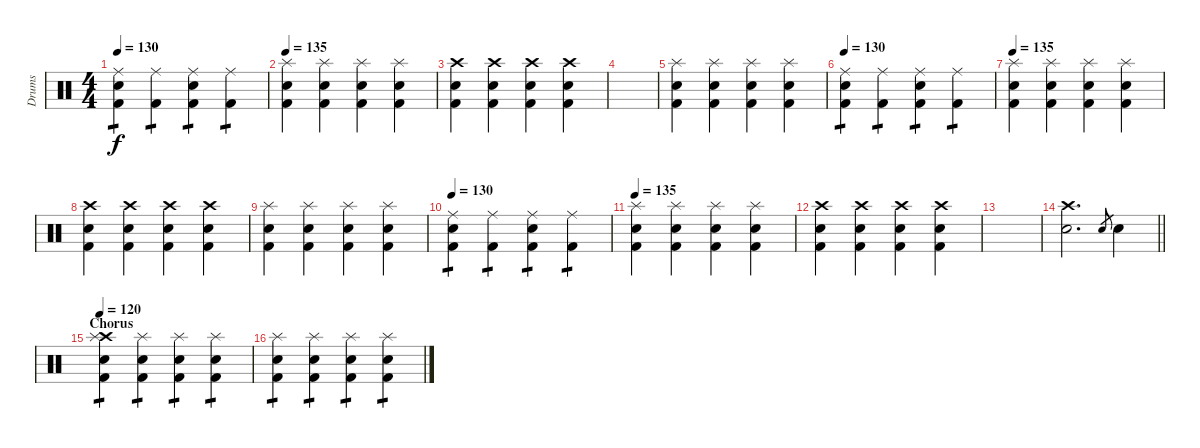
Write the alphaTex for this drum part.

\track ("Drums" "Drums") {instrument percussion}
\staff {score}
\articulation defaults
\ts (4 4)
\tempo 130
\clef neutral
\ks c
("Kick (hit) 2" "Electric Snare (hit)" "Ride (middle)").4{tp 1 dy f} ("Kick (hit) 2" "Ride (middle)").4{tp 1} ("Kick (hit) 2" "Electric Snare (hit)" "Ride (middle)").4{tp 1} ("Kick (hit) 2" "Ride (middle)").4{tp 1} |
\tempo 135
("Kick (hit) 2" "Electric Snare (hit)" "Splash (hit)").4 ("Kick (hit) 2" "Electric Snare (hit)" "Splash (hit)").4 ("Kick (hit) 2" "Electric Snare (hit)" "Splash (hit)").4 ("Kick (hit) 2" "Electric Snare (hit)" "Splash (hit)").4 |
("Kick (hit) 2" "Electric Snare (hit)" "Crash high (hit)").4 ("Kick (hit) 2" "Electric Snare (hit)" "Crash high (hit)").4 ("Kick (hit) 2" "Electric Snare (hit)" "Crash high (hit)").4 ("Kick (hit) 2" "Electric Snare (hit)" "Crash high (hit)").4 |
|
("Kick (hit) 2" "Electric Snare (hit)" "Splash (hit)").4 ("Kick (hit) 2" "Electric Snare (hit)" "Splash (hit)").4 ("Kick (hit) 2" "Electric Snare (hit)" "Splash (hit)").4 ("Kick (hit) 2" "Electric Snare (hit)" "Splash (hit)").4 |
\tempo 130
("Kick (hit) 2" "Electric Snare (hit)" "Ride (middle)").4{tp 1} ("Kick (hit) 2" "Ride (middle)").4{tp 1} ("Kick (hit) 2" "Electric Snare (hit)" "Ride (middle)").4{tp 1} ("Kick (hit) 2" "Ride (middle)").4{tp 1} |
\tempo 135
("Kick (hit) 2" "Electric Snare (hit)" "Splash (hit)").4 ("Kick (hit) 2" "Electric Snare (hit)" "Splash (hit)").4 ("Kick (hit) 2" "Electric Snare (hit)" "Splash (hit)").4 ("Kick (hit) 2" "Electric Snare (hit)" "Splash (hit)").4 |
("Kick (hit) 2" "Electric Snare (hit)" "Crash high (hit)").4 ("Kick (hit) 2" "Electric Snare (hit)" "Crash high (hit)").4 ("Kick (hit) 2" "Electric Snare (hit)" "Crash high (hit)").4 ("Kick (hit) 2" "Electric Snare (hit)" "Crash high (hit)").4 |
("Kick (hit) 2" "Electric Snare (hit)" "Splash (hit)").4 ("Kick (hit) 2" "Electric Snare (hit)" "Splash (hit)").4 ("Kick (hit) 2" "Electric Snare (hit)" "Splash (hit)").4 ("Kick (hit) 2" "Electric Snare (hit)" "Splash (hit)").4 |
\tempo 130
("Kick (hit) 2" "Electric Snare (hit)" "Ride (middle)").4{tp 1} ("Kick (hit) 2" "Ride (middle)").4{tp 1} ("Kick (hit) 2" "Electric Snare (hit)" "Ride (middle)").4{tp 1} ("Kick (hit) 2" "Ride (middle)").4{tp 1} |
\tempo 135
("Kick (hit) 2" "Electric Snare (hit)" "Splash (hit)").4 ("Kick (hit) 2" "Electric Snare (hit)" "Splash (hit)").4 ("Kick (hit) 2" "Electric Snare (hit)" "Splash (hit)").4 ("Kick (hit) 2" "Electric Snare (hit)" "Splash (hit)").4 |
("Kick (hit) 2" "Electric Snare (hit)" "Crash high (hit)").4 ("Kick (hit) 2" "Electric Snare (hit)" "Crash high (hit)").4 ("Kick (hit) 2" "Electric Snare (hit)" "Crash high (hit)").4 ("Kick (hit) 2" "Electric Snare (hit)" "Crash high (hit)").4 |
|
\barLineRight lightlight
("Electric Snare (hit)" "Crash high (hit)").2{d} "Electric Snare (hit)".8{gr} "Electric Snare (hit)".4 |
\section ("" "Chorus")
\tempo 120
("Kick (hit) 2" "Electric Snare (hit)" "Crash high (hit)" "Splash (hit)").4{tp 1} ("Kick (hit) 2" "Electric Snare (hit)" "Splash (hit)").4{tp 1} ("Kick (hit) 2" "Electric Snare (hit)" "Splash (hit)").4{tp 1} ("Kick (hit) 2" "Electric Snare (hit)" "Splash (hit)").4{tp 1} |
("Kick (hit) 2" "Electric Snare (hit)" "Splash (hit)").4{tp 1} ("Kick (hit) 2" "Electric Snare (hit)" "Splash (hit)").4{tp 1} ("Kick (hit) 2" "Electric Snare (hit)" "Splash (hit)").4{tp 1} ("Kick (hit) 2" "Electric Snare (hit)" "Splash (hit)").4{tp 1}
